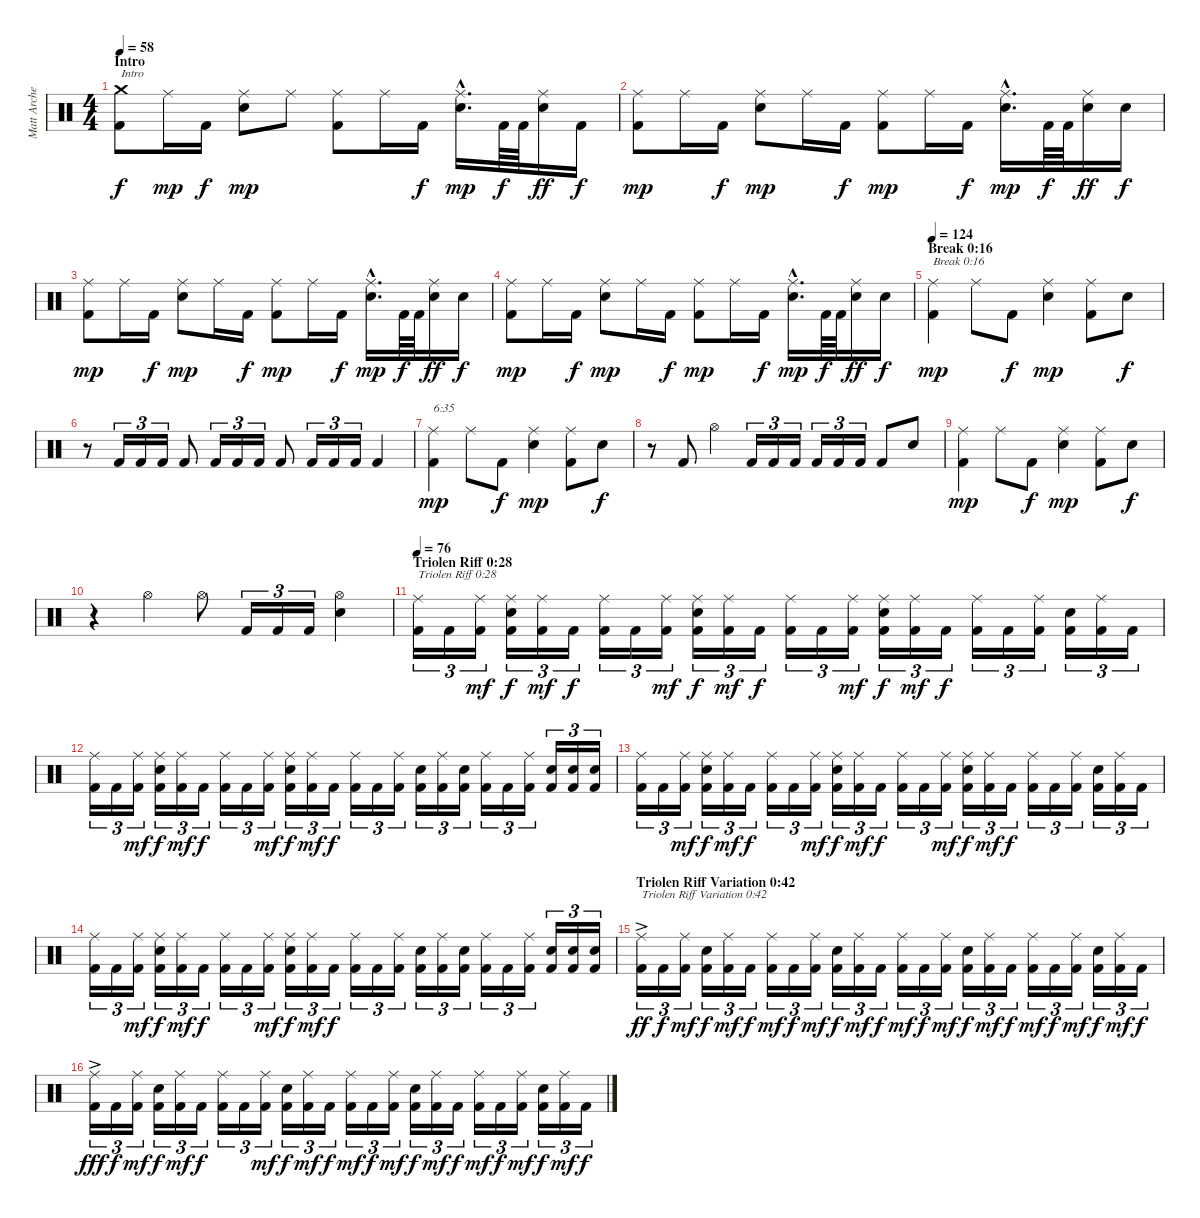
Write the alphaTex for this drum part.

\track ("Matt Archer" "Matt Arche") {instrument percussion}
\staff {score}
\articulation defaults
\ts (4 4)
\section ("" "Intro")
\tempo 58
\clef neutral
\ks c
("Kick (hit) 2" "Crash medium (hit)").8{txt "Intro" dy f} "Ride (middle)".16{dy mp} "Kick (hit) 2".16{dy f} ("Electric Snare (hit)" "Ride (middle)").8{dy mp} "Ride (middle)".8 ("Kick (hit) 2" "Ride (middle)").8 "Ride (middle)".16 "Kick (hit) 2".16{dy f} ("Electric Snare (hit)"{hac} "Ride (middle)"{hac}).16{d dy mp} "Kick (hit) 2".64{dy f} "Kick (hit) 2".64 ("Electric Snare (hit)" "Ride (middle)").16{dy ff} "Kick (hit) 2".16{dy f} |
("Kick (hit) 2" "Ride (middle)").8{dy mp} "Ride (middle)".16 "Kick (hit) 2".16{dy f} ("Electric Snare (hit)" "Ride (middle)").8{dy mp} "Ride (middle)".16 "Kick (hit) 2".16{dy f} ("Kick (hit) 2" "Ride (middle)").8{dy mp} "Ride (middle)".16 "Kick (hit) 2".16{dy f} ("Electric Snare (hit)"{hac} "Ride (middle)"{hac}).16{d dy mp} "Kick (hit) 2".64{dy f} "Kick (hit) 2".64 ("Electric Snare (hit)" "Ride (middle)").16{dy ff} "Electric Snare (hit)".16{dy f} |
("Kick (hit) 2" "Ride (middle)").8{dy mp} "Ride (middle)".16 "Kick (hit) 2".16{dy f} ("Electric Snare (hit)" "Ride (middle)").8{dy mp} "Ride (middle)".16 "Kick (hit) 2".16{dy f} ("Kick (hit) 2" "Ride (middle)").8{dy mp} "Ride (middle)".16 "Kick (hit) 2".16{dy f} ("Electric Snare (hit)"{hac} "Ride (middle)"{hac}).16{d dy mp} "Kick (hit) 2".64{dy f} "Kick (hit) 2".64 ("Electric Snare (hit)" "Ride (middle)").16{dy ff} "Electric Snare (hit)".16{dy f} |
("Kick (hit) 2" "Ride (middle)").8{dy mp} "Ride (middle)".16 "Kick (hit) 2".16{dy f} ("Electric Snare (hit)" "Ride (middle)").8{dy mp} "Ride (middle)".16 "Kick (hit) 2".16{dy f} ("Kick (hit) 2" "Ride (middle)").8{dy mp} "Ride (middle)".16 "Kick (hit) 2".16{dy f} ("Electric Snare (hit)"{hac} "Ride (middle)"{hac}).16{d dy mp} "Kick (hit) 2".64{dy f} "Kick (hit) 2".64 ("Electric Snare (hit)" "Ride (middle)").16{dy ff} "Electric Snare (hit)".16{dy f} |
\section ("" "Break 0:16")
\tempo 124
("Kick (hit) 2" "Ride (middle)").4{txt "Break 0:16" dy mp} "Ride (middle)".8 "Kick (hit) 2".8{dy f} ("Electric Snare (hit)" "Ride (middle)").4{dy mp} ("Kick (hit) 2" "Ride (middle)").8 "Electric Snare (hit)".8{dy f} |
r.8 "Kick (hit) 2".16{tu (3 2)} "Kick (hit) 2".16{tu (3 2)} "Kick (hit) 2".16{tu (3 2)} "Kick (hit) 2".8 "Kick (hit) 2".16{tu (3 2)} "Kick (hit) 2".16{tu (3 2)} "Kick (hit) 2".16{tu (3 2)} "Kick (hit) 2".8 "Kick (hit) 2".16{tu (3 2)} "Kick (hit) 2".16{tu (3 2)} "Kick (hit) 2".16{tu (3 2)} "Kick (hit) 2".4 |
("Kick (hit) 2" "Ride (middle)").4{txt "6:35" dy mp} "Ride (middle)".8 "Kick (hit) 2".8{dy f} ("Electric Snare (hit)" "Ride (middle)").4{dy mp} ("Kick (hit) 2" "Ride (middle)").8 "Electric Snare (hit)".8{dy f} |
r.8 "Kick (hit) 2".8 "Hi-Hat (open)".4 "Kick (hit) 2".16{tu (3 2)} "Kick (hit) 2".16{tu (3 2)} "Kick (hit) 2".16{tu (3 2)} "Kick (hit) 2".16{tu (3 2)} "Kick (hit) 2".16{tu (3 2)} "Kick (hit) 2".16{tu (3 2)} "Kick (hit) 2".8 "Electric Snare (hit)".8 |
("Kick (hit) 2" "Ride (middle)").4{dy mp} "Ride (middle)".8 "Kick (hit) 2".8{dy f} ("Electric Snare (hit)" "Ride (middle)").4{dy mp} ("Kick (hit) 2" "Ride (middle)").8 "Electric Snare (hit)".8{dy f} |
r.4 "Hi-Hat (open)".4 "Hi-Hat (open)".8 "Kick (hit) 2".16{tu (3 2)} "Kick (hit) 2".16{tu (3 2)} "Kick (hit) 2".16{tu (3 2)} ("Electric Snare (hit)" "Hi-Hat (open)").4 |
\section ("" "Triolen Riff 0:28")
\tempo 76
("Kick (hit) 2" "Ride (middle)").16{tu (3 2) txt "Triolen Riff 0:28"} "Kick (hit) 2".16{tu (3 2)} ("Kick (hit) 2" "Ride (middle)").16{tu (3 2) dy mf} ("Kick (hit) 2" "Electric Snare (hit)" "Ride (middle)").16{tu (3 2) dy f} ("Kick (hit) 2" "Ride (middle)").16{tu (3 2) dy mf} "Kick (hit) 2".16{tu (3 2) dy f} ("Kick (hit) 2" "Ride (middle)").16{tu (3 2)} "Kick (hit) 2".16{tu (3 2)} ("Kick (hit) 2" "Ride (middle)").16{tu (3 2) dy mf} ("Kick (hit) 2" "Electric Snare (hit)" "Ride (middle)").16{tu (3 2) dy f} ("Kick (hit) 2" "Ride (middle)").16{tu (3 2) dy mf} "Kick (hit) 2".16{tu (3 2) dy f} ("Kick (hit) 2" "Ride (middle)").16{tu (3 2)} "Kick (hit) 2".16{tu (3 2)} ("Kick (hit) 2" "Ride (middle)").16{tu (3 2) dy mf} ("Kick (hit) 2" "Electric Snare (hit)" "Ride (middle)").16{tu (3 2) dy f} ("Kick (hit) 2" "Ride (middle)").16{tu (3 2) dy mf} "Kick (hit) 2".16{tu (3 2) dy f} ("Kick (hit) 2" "Ride (middle)").16{tu (3 2)} "Kick (hit) 2".16{tu (3 2)} ("Kick (hit) 2" "Ride (middle)").16{tu (3 2)} ("Kick (hit) 2" "Electric Snare (hit)").16{tu (3 2)} ("Kick (hit) 2" "Ride (middle)").16{tu (3 2)} "Kick (hit) 2".16{tu (3 2)} |
("Kick (hit) 2" "Ride (middle)").16{tu (3 2)} "Kick (hit) 2".16{tu (3 2)} ("Kick (hit) 2" "Ride (middle)").16{tu (3 2) dy mf} ("Kick (hit) 2" "Electric Snare (hit)" "Ride (middle)").16{tu (3 2) dy f} ("Kick (hit) 2" "Ride (middle)").16{tu (3 2) dy mf} "Kick (hit) 2".16{tu (3 2) dy f} ("Kick (hit) 2" "Ride (middle)").16{tu (3 2)} "Kick (hit) 2".16{tu (3 2)} ("Kick (hit) 2" "Ride (middle)").16{tu (3 2) dy mf} ("Kick (hit) 2" "Electric Snare (hit)" "Ride (middle)").16{tu (3 2) dy f} ("Kick (hit) 2" "Ride (middle)").16{tu (3 2) dy mf} "Kick (hit) 2".16{tu (3 2) dy f} ("Kick (hit) 2" "Ride (middle)").16{tu (3 2)} "Kick (hit) 2".16{tu (3 2)} ("Kick (hit) 2" "Ride (middle)").16{tu (3 2)} ("Kick (hit) 2" "Electric Snare (hit)").16{tu (3 2)} ("Kick (hit) 2" "Ride (middle)").16{tu (3 2)} ("Kick (hit) 2" "Electric Snare (hit)").16{tu (3 2)} ("Kick (hit) 2" "Ride (middle)").16{tu (3 2)} "Kick (hit) 2".16{tu (3 2)} ("Kick (hit) 2" "Ride (middle)").16{tu (3 2)} ("Kick (hit) 2" "Electric Snare (hit)").16{tu (3 2)} ("Kick (hit) 2" "Electric Snare (hit)").16{tu (3 2)} ("Kick (hit) 2" "Electric Snare (hit)").16{tu (3 2)} |
("Kick (hit) 2" "Ride (middle)").16{tu (3 2)} "Kick (hit) 2".16{tu (3 2)} ("Kick (hit) 2" "Ride (middle)").16{tu (3 2) dy mf} ("Kick (hit) 2" "Electric Snare (hit)" "Ride (middle)").16{tu (3 2) dy f} ("Kick (hit) 2" "Ride (middle)").16{tu (3 2) dy mf} "Kick (hit) 2".16{tu (3 2) dy f} ("Kick (hit) 2" "Ride (middle)").16{tu (3 2)} "Kick (hit) 2".16{tu (3 2)} ("Kick (hit) 2" "Ride (middle)").16{tu (3 2) dy mf} ("Kick (hit) 2" "Electric Snare (hit)" "Ride (middle)").16{tu (3 2) dy f} ("Kick (hit) 2" "Ride (middle)").16{tu (3 2) dy mf} "Kick (hit) 2".16{tu (3 2) dy f} ("Kick (hit) 2" "Ride (middle)").16{tu (3 2)} "Kick (hit) 2".16{tu (3 2)} ("Kick (hit) 2" "Ride (middle)").16{tu (3 2) dy mf} ("Kick (hit) 2" "Electric Snare (hit)" "Ride (middle)").16{tu (3 2) dy f} ("Kick (hit) 2" "Ride (middle)").16{tu (3 2) dy mf} "Kick (hit) 2".16{tu (3 2) dy f} ("Kick (hit) 2" "Ride (middle)").16{tu (3 2)} "Kick (hit) 2".16{tu (3 2)} ("Kick (hit) 2" "Ride (middle)").16{tu (3 2)} ("Kick (hit) 2" "Electric Snare (hit)").16{tu (3 2)} ("Kick (hit) 2" "Ride (middle)").16{tu (3 2)} "Kick (hit) 2".16{tu (3 2)} |
("Kick (hit) 2" "Ride (middle)").16{tu (3 2)} "Kick (hit) 2".16{tu (3 2)} ("Kick (hit) 2" "Ride (middle)").16{tu (3 2) dy mf} ("Kick (hit) 2" "Electric Snare (hit)" "Ride (middle)").16{tu (3 2) dy f} ("Kick (hit) 2" "Ride (middle)").16{tu (3 2) dy mf} "Kick (hit) 2".16{tu (3 2) dy f} ("Kick (hit) 2" "Ride (middle)").16{tu (3 2)} "Kick (hit) 2".16{tu (3 2)} ("Kick (hit) 2" "Ride (middle)").16{tu (3 2) dy mf} ("Kick (hit) 2" "Electric Snare (hit)" "Ride (middle)").16{tu (3 2) dy f} ("Kick (hit) 2" "Ride (middle)").16{tu (3 2) dy mf} "Kick (hit) 2".16{tu (3 2) dy f} ("Kick (hit) 2" "Ride (middle)").16{tu (3 2)} "Kick (hit) 2".16{tu (3 2)} ("Kick (hit) 2" "Ride (middle)").16{tu (3 2)} ("Kick (hit) 2" "Electric Snare (hit)").16{tu (3 2)} ("Kick (hit) 2" "Ride (middle)").16{tu (3 2)} ("Kick (hit) 2" "Electric Snare (hit)").16{tu (3 2)} ("Kick (hit) 2" "Ride (middle)").16{tu (3 2)} "Kick (hit) 2".16{tu (3 2)} ("Kick (hit) 2" "Ride (middle)").16{tu (3 2)} ("Kick (hit) 2" "Electric Snare (hit)").16{tu (3 2)} ("Kick (hit) 2" "Electric Snare (hit)").16{tu (3 2)} ("Kick (hit) 2" "Electric Snare (hit)").16{tu (3 2)} |
\section ("" "Triolen Riff Variation 0:42")
("Kick (hit) 2" "Ride (middle)"{ac}).16{tu (3 2) txt "Triolen Riff Variation 0:42" dy ff} "Kick (hit) 2".16{tu (3 2) dy f} ("Kick (hit) 2" "Ride (middle)").16{tu (3 2) dy mf} ("Kick (hit) 2" "Electric Snare (hit)").16{tu (3 2) dy f} ("Kick (hit) 2" "Ride (middle)").16{tu (3 2) dy mf} "Kick (hit) 2".16{tu (3 2) dy f} ("Kick (hit) 2" "Ride (middle)").16{tu (3 2) dy mf} "Kick (hit) 2".16{tu (3 2) dy f} ("Kick (hit) 2" "Ride (middle)").16{tu (3 2) dy mf} ("Kick (hit) 2" "Electric Snare (hit)").16{tu (3 2) dy f} ("Kick (hit) 2" "Ride (middle)").16{tu (3 2) dy mf} "Kick (hit) 2".16{tu (3 2) dy f} ("Kick (hit) 2" "Ride (middle)").16{tu (3 2) dy mf} "Kick (hit) 2".16{tu (3 2) dy f} ("Kick (hit) 2" "Ride (middle)").16{tu (3 2) dy mf} ("Kick (hit) 2" "Electric Snare (hit)").16{tu (3 2) dy f} ("Kick (hit) 2" "Ride (middle)").16{tu (3 2) dy mf} "Kick (hit) 2".16{tu (3 2) dy f} ("Kick (hit) 2" "Ride (middle)").16{tu (3 2) dy mf} "Kick (hit) 2".16{tu (3 2) dy f} ("Kick (hit) 2" "Ride (middle)").16{tu (3 2) dy mf} ("Kick (hit) 2" "Electric Snare (hit)").16{tu (3 2) dy f} ("Kick (hit) 2" "Ride (middle)").16{tu (3 2) dy mf} "Kick (hit) 2".16{tu (3 2) dy f} |
("Kick (hit) 2" "Ride (middle)"{ac}).16{tu (3 2) dy fff} "Kick (hit) 2".16{tu (3 2) dy f} ("Kick (hit) 2" "Ride (middle)").16{tu (3 2) dy mf} ("Kick (hit) 2" "Electric Snare (hit)").16{tu (3 2) dy f} ("Kick (hit) 2" "Ride (middle)").16{tu (3 2) dy mf} "Kick (hit) 2".16{tu (3 2) dy f} ("Kick (hit) 2" "Ride (middle)").16{tu (3 2)} "Kick (hit) 2".16{tu (3 2)} ("Kick (hit) 2" "Ride (middle)").16{tu (3 2) dy mf} ("Kick (hit) 2" "Electric Snare (hit)").16{tu (3 2) dy f} ("Kick (hit) 2" "Ride (middle)").16{tu (3 2) dy mf} "Kick (hit) 2".16{tu (3 2) dy f} ("Kick (hit) 2" "Ride (middle)").16{tu (3 2) dy mf} "Kick (hit) 2".16{tu (3 2) dy f} ("Kick (hit) 2" "Ride (middle)").16{tu (3 2) dy mf} ("Kick (hit) 2" "Electric Snare (hit)").16{tu (3 2) dy f} ("Kick (hit) 2" "Ride (middle)").16{tu (3 2) dy mf} "Kick (hit) 2".16{tu (3 2) dy f} ("Kick (hit) 2" "Ride (middle)").16{tu (3 2) dy mf} "Kick (hit) 2".16{tu (3 2) dy f} ("Kick (hit) 2" "Ride (middle)").16{tu (3 2) dy mf} ("Kick (hit) 2" "Electric Snare (hit)").16{tu (3 2) dy f} ("Kick (hit) 2" "Ride (middle)").16{tu (3 2) dy mf} "Kick (hit) 2".16{tu (3 2) dy f}
